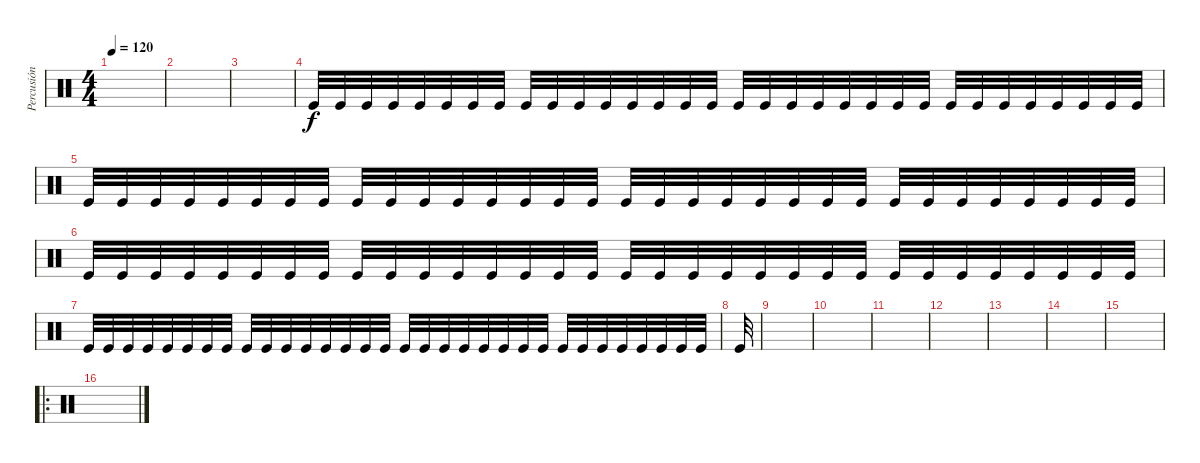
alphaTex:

\track ("Percusión" "Percusión") {instrument percussion}
\staff {score}
\articulation defaults
\ts (4 4)
\tempo 120
\clef neutral
\ks c
|
|
|
"Kick (hit)".32 "Kick (hit)".32 "Kick (hit)".32 "Kick (hit)".32 "Kick (hit)".32 "Kick (hit)".32 "Kick (hit)".32 "Kick (hit)".32 "Kick (hit)".32 "Kick (hit)".32 "Kick (hit)".32 "Kick (hit)".32 "Kick (hit)".32 "Kick (hit)".32 "Kick (hit)".32 "Kick (hit)".32 "Kick (hit)".32 "Kick (hit)".32 "Kick (hit)".32 "Kick (hit)".32 "Kick (hit)".32 "Kick (hit)".32 "Kick (hit)".32 "Kick (hit)".32 "Kick (hit)".32 "Kick (hit)".32 "Kick (hit)".32 "Kick (hit)".32 "Kick (hit)".32 "Kick (hit)".32 "Kick (hit)".32 "Kick (hit)".32 |
"Kick (hit)".32 "Kick (hit)".32 "Kick (hit)".32 "Kick (hit)".32 "Kick (hit)".32 "Kick (hit)".32 "Kick (hit)".32 "Kick (hit)".32 "Kick (hit)".32 "Kick (hit)".32 "Kick (hit)".32 "Kick (hit)".32 "Kick (hit)".32 "Kick (hit)".32 "Kick (hit)".32 "Kick (hit)".32 "Kick (hit)".32 "Kick (hit)".32 "Kick (hit)".32 "Kick (hit)".32 "Kick (hit)".32 "Kick (hit)".32 "Kick (hit)".32 "Kick (hit)".32 "Kick (hit)".32 "Kick (hit)".32 "Kick (hit)".32 "Kick (hit)".32 "Kick (hit)".32 "Kick (hit)".32 "Kick (hit)".32 "Kick (hit)".32 |
"Kick (hit)".32 "Kick (hit)".32 "Kick (hit)".32 "Kick (hit)".32 "Kick (hit)".32 "Kick (hit)".32 "Kick (hit)".32 "Kick (hit)".32 "Kick (hit)".32 "Kick (hit)".32 "Kick (hit)".32 "Kick (hit)".32 "Kick (hit)".32 "Kick (hit)".32 "Kick (hit)".32 "Kick (hit)".32 "Kick (hit)".32 "Kick (hit)".32 "Kick (hit)".32 "Kick (hit)".32 "Kick (hit)".32 "Kick (hit)".32 "Kick (hit)".32 "Kick (hit)".32 "Kick (hit)".32 "Kick (hit)".32 "Kick (hit)".32 "Kick (hit)".32 "Kick (hit)".32 "Kick (hit)".32 "Kick (hit)".32 "Kick (hit)".32 |
"Kick (hit)".32 "Kick (hit)".32 "Kick (hit)".32 "Kick (hit)".32 "Kick (hit)".32 "Kick (hit)".32 "Kick (hit)".32 "Kick (hit)".32 "Kick (hit)".32 "Kick (hit)".32 "Kick (hit)".32 "Kick (hit)".32 "Kick (hit)".32 "Kick (hit)".32 "Kick (hit)".32 "Kick (hit)".32 "Kick (hit)".32 "Kick (hit)".32 "Kick (hit)".32 "Kick (hit)".32 "Kick (hit)".32 "Kick (hit)".32 "Kick (hit)".32 "Kick (hit)".32 "Kick (hit)".32 "Kick (hit)".32 "Kick (hit)".32 "Kick (hit)".32 "Kick (hit)".32 "Kick (hit)".32 "Kick (hit)".32 "Kick (hit)".32 |
"Kick (hit)".32 |
|
|
|
|
|
|
|
\ro
